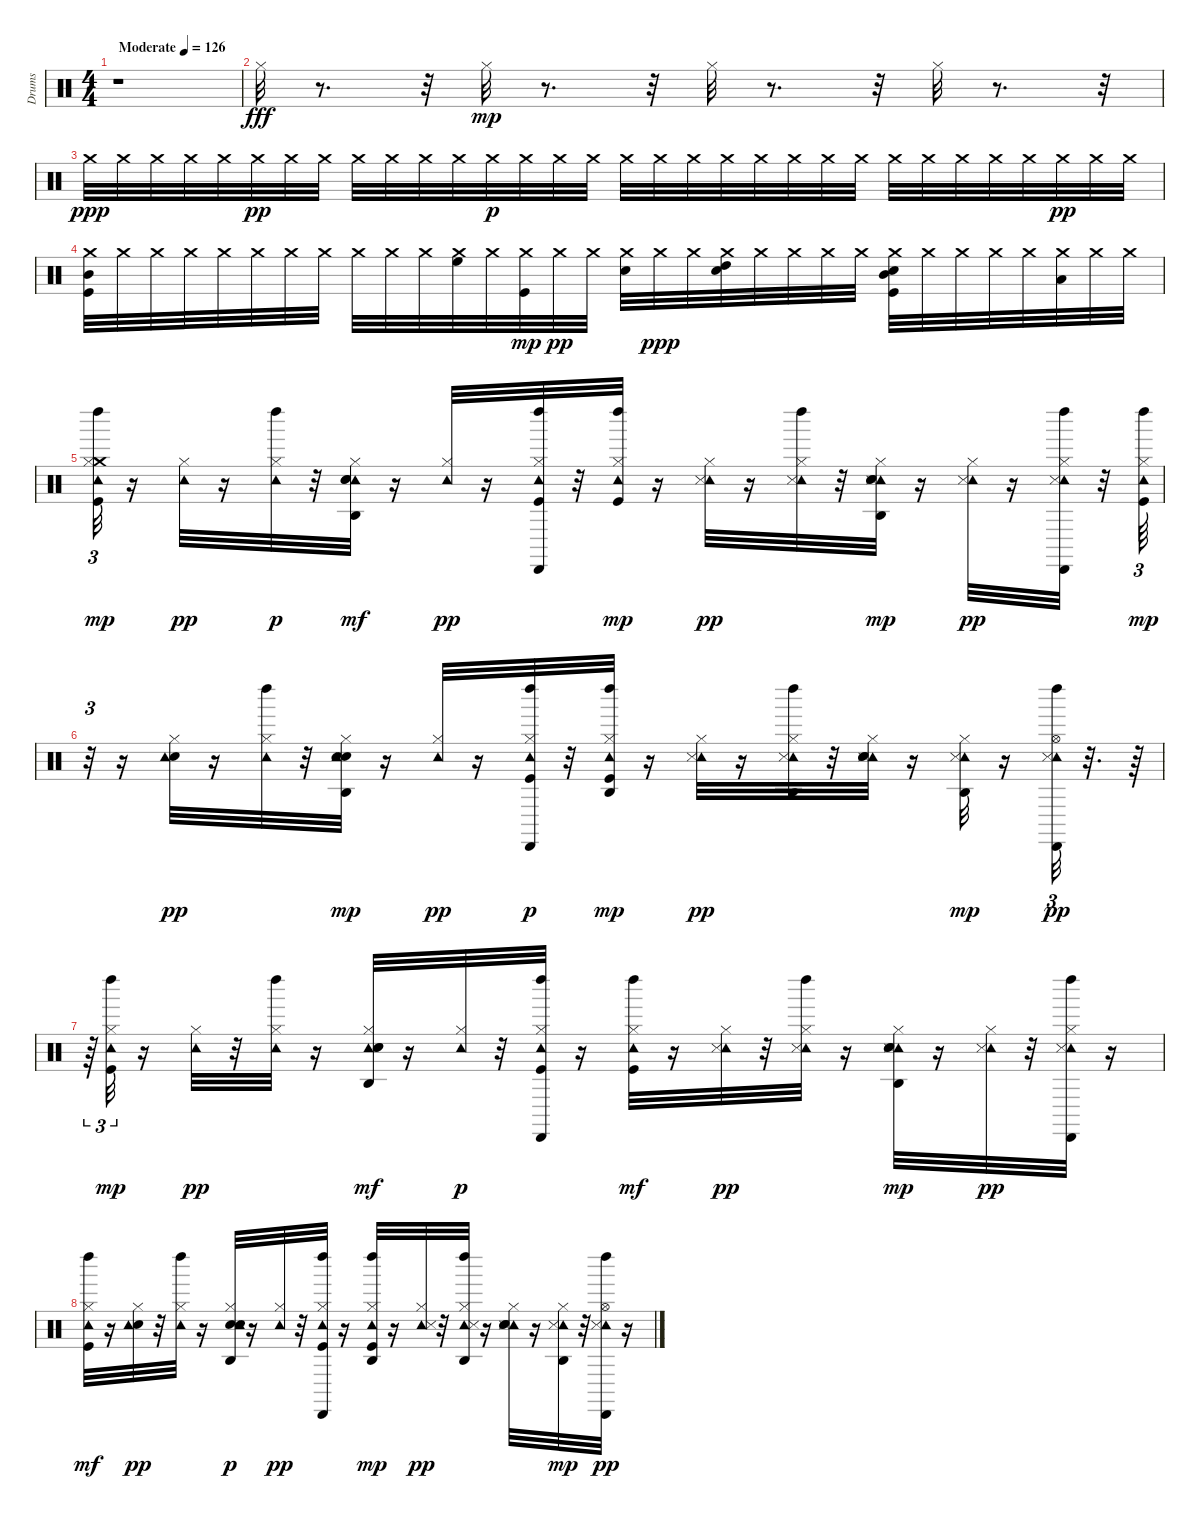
\track ("Drums" "Drums") {instrument percussion}
\staff {score}
\articulation defaults
\ts (4 4)
\tempo (126 "Moderate")
\clef neutral
\ks c
r.1{dy fff} |
"Hi-Hat (closed)".32 r.8{d} r.32 "Hi-Hat (closed)".32{dy mp} r.8{d} r.32 "Hi-Hat (closed)".32 r.8{d} r.32 "Hi-Hat (closed)".32 r.8{d} r.32 |
"Crash medium (hit)".32{dy ppp} "Crash medium (hit)".32 "Crash medium (hit)".32 "Crash medium (hit)".32 "Crash medium (hit)".32 "Crash medium (hit)".32{dy pp} "Crash medium (hit)".32 "Crash medium (hit)".32 "Crash medium (hit)".32 "Crash medium (hit)".32 "Crash medium (hit)".32 "Crash medium (hit)".32 "Crash medium (hit)".32{dy p} "Crash medium (hit)".32 "Crash medium (hit)".32 "Crash medium (hit)".32 "Crash medium (hit)".32 "Crash medium (hit)".32 "Crash medium (hit)".32 "Crash medium (hit)".32 "Crash medium (hit)".32 "Crash medium (hit)".32 "Crash medium (hit)".32 "Crash medium (hit)".32 "Crash medium (hit)".32 "Crash medium (hit)".32 "Crash medium (hit)".32 "Crash medium (hit)".32 "Crash medium (hit)".32 "Crash medium (hit)".32{dy pp} "Crash medium (hit)".32 "Crash medium (hit)".32 |
("Kick (hit)" "Crash medium (hit)" "Mid Tom (hit)").32 "Crash medium (hit)".32 "Crash medium (hit)".32 "Crash medium (hit)".32 "Crash medium (hit)".32 "Crash medium (hit)".32 "Crash medium (hit)".32 "Crash medium (hit)".32 "Crash medium (hit)".32 "Crash medium (hit)".32 "Crash medium (hit)".32 ("High Floor Tom (hit)" "Crash medium (hit)").32 "Crash medium (hit)".32 ("Crash medium (hit)" "Kick (hit)").32{dy mp} "Crash medium (hit)".32{dy pp} "Crash medium (hit)".32 ("Crash medium (hit)" "Snare (hit) 2").32 "Crash medium (hit)".32{dy ppp} "Crash medium (hit)".32 ("Snare (hit) 2" "High Tom (hit)" "Crash medium (hit)").32 "Crash medium (hit)".32 "Crash medium (hit)".32 "Crash medium (hit)".32 "Crash medium (hit)".32 ("Kick (hit)" "Crash medium (hit)" "Snare (hit) 2" "Mid Tom (hit)").32 "Crash medium (hit)".32 "Crash medium (hit)".32 "Crash medium (hit)".32 "Crash medium (hit)".32 ("Crash medium (hit)" "Low Tom (hit)").32 "Crash medium (hit)".32 "Crash medium (hit)".32 |
("Crash medium (hit)" "Kick (hit)" "Hi-Hat (closed)" "Left Maraca (hit)" "Tambourine (hit)").32{tu (3 2) dy mp} r.16 ("Hi-Hat (closed)" "Tambourine (hit)").32{dy pp} r.16 ("Hi-Hat (closed)" "Tambourine (hit)" "Left Maraca (hit)").32{dy p} r.32 ("Hi-Hat (closed)" "Tambourine (hit)" "Agogo high (hit)" "Snare (hit) 2" "Hand Clap (hit)").32{dy mf} r.16 ("Hi-Hat (closed)" "Tambourine (hit)").32{dy pp} r.16 ("Cabasa (hit)" "Kick (hit)" "Hi-Hat (closed)" "Tambourine (hit)" "Left Maraca (hit)").32 r.32 ("Hi-Hat (closed)" "Tambourine (hit)" "Kick (hit)" "Left Maraca (hit)").32{dy mp} r.16 ("Hi-Hat (closed)" "Tambourine (hit)" "Snare (side stick) 3").32{dy pp} r.16 ("Hi-Hat (closed)" "Left Maraca (hit)" "Tambourine (hit)" "Snare (side stick) 3").32 r.32 ("Hi-Hat (closed)" "Tambourine (hit)" "Hand Clap (hit)" "Snare (hit) 2" "Snare (side stick) 3" "Agogo high (hit)").32{dy mp} r.16 ("Hi-Hat (closed)" "Tambourine (hit)" "Snare (side stick) 3").32{dy pp} r.16 ("Cabasa (hit)" "Hi-Hat (closed)" "Left Maraca (hit)" "Tambourine (hit)" "Snare (side stick) 3").32 r.32 ("Tambourine (hit)" "Kick (hit)" "Hi-Hat (closed)" "Left Maraca (hit)").64{tu (3 2) dy mp} |
r.32{tu (3 2)} r.16 ("Electric Snare (hit)" "Hi-Hat (closed)" "Tambourine (hit)").32{dy pp} r.16 ("Left Maraca (hit)" "Hi-Hat (closed)" "Tambourine (hit)").32 r.32 ("Snare (hit) 2" "Hi-Hat (closed)" "Tambourine (hit)" "Agogo high (hit)" "Hand Clap (hit)").32{dy mp} r.16 ("Hi-Hat (closed)" "Tambourine (hit)").32{dy pp} r.16 ("Kick (hit)" "Hi-Hat (closed)" "Left Maraca (hit)" "Tambourine (hit)" "Cabasa (hit)").32{dy p} r.32 ("Tambourine (hit)" "Kick (hit)" "Hi-Hat (closed)" "Left Maraca (hit)" "Agogo high (hit)").32{dy mp} r.16 ("Hi-Hat (closed)" "Tambourine (hit)" "Snare (side stick) 3").32{dy pp} r.16 ("Hi-Hat (closed)" "Left Maraca (hit)" "Tambourine (hit)" "Agogo high (hit)" "Snare (side stick) 3").32 r.32 ("Hi-Hat (closed)" "Tambourine (hit)" "Hand Clap (hit)" "Snare (hit) 2" "Snare (side stick) 3").32 r.16 ("Hi-Hat (closed)" "Tambourine (hit)" "Snare (side stick) 3" "Agogo high (hit)").32{dy mp} r.16 ("Hi-Hat (open)" "Left Maraca (hit)" "Tambourine (hit)" "Cabasa (hit)" "Snare (side stick) 3").32{tu (3 2) dy pp} r.32{d} r.64 |
r.64{tu (3 2)} ("Kick (hit)" "Hi-Hat (closed)" "Left Maraca (hit)" "Tambourine (hit)").32{tu (3 2) dy mp} r.16 ("Hi-Hat (closed)" "Tambourine (hit)").32{dy pp} r.32 ("Hi-Hat (closed)" "Tambourine (hit)" "Left Maraca (hit)").32 r.16 ("Hi-Hat (closed)" "Tambourine (hit)" "Agogo high (hit)" "Snare (hit) 2" "Hand Clap (hit)").32{dy mf} r.16 ("Hi-Hat (closed)" "Tambourine (hit)").32{dy p} r.32 ("Cabasa (hit)" "Kick (hit)" "Hi-Hat (closed)" "Tambourine (hit)" "Left Maraca (hit)").32 r.16 ("Hi-Hat (closed)" "Tambourine (hit)" "Kick (hit)" "Left Maraca (hit)").32{dy mf} r.16 ("Hi-Hat (closed)" "Tambourine (hit)" "Snare (side stick) 3").32{dy pp} r.32 ("Hi-Hat (closed)" "Left Maraca (hit)" "Tambourine (hit)" "Snare (side stick) 3").32 r.16 ("Hi-Hat (closed)" "Tambourine (hit)" "Hand Clap (hit)" "Snare (hit) 2" "Snare (side stick) 3" "Agogo high (hit)").32{dy mp} r.16 ("Hi-Hat (closed)" "Tambourine (hit)" "Snare (side stick) 3").32{dy pp} r.32 ("Cabasa (hit)" "Hi-Hat (closed)" "Left Maraca (hit)" "Tambourine (hit)" "Snare (side stick) 3").32 r.16 |
("Tambourine (hit)" "Kick (hit)" "Hi-Hat (closed)" "Left Maraca (hit)").32{dy mf} r.16 ("Electric Snare (hit)" "Hi-Hat (closed)" "Tambourine (hit)").32{dy pp} r.32 ("Left Maraca (hit)" "Hi-Hat (closed)" "Tambourine (hit)").32 r.16 ("Snare (hit) 2" "Hi-Hat (closed)" "Tambourine (hit)" "Agogo high (hit)" "Hand Clap (hit)").32{dy p} r.16 ("Hi-Hat (closed)" "Tambourine (hit)").32{dy pp} r.32 ("Kick (hit)" "Hi-Hat (closed)" "Left Maraca (hit)" "Tambourine (hit)" "Cabasa (hit)").32 r.16 ("Tambourine (hit)" "Kick (hit)" "Hi-Hat (closed)" "Left Maraca (hit)" "Agogo high (hit)").32{dy mp} r.16 ("Hi-Hat (closed)" "Tambourine (hit)" "Snare (side stick) 3").32{dy pp} r.32 ("Hi-Hat (closed)" "Left Maraca (hit)" "Tambourine (hit)" "Agogo high (hit)" "Snare (side stick) 3").32 r.16 ("Hi-Hat (closed)" "Tambourine (hit)" "Hand Clap (hit)" "Snare (hit) 2" "Snare (side stick) 3").32 r.16 ("Hi-Hat (closed)" "Tambourine (hit)" "Snare (side stick) 3" "Agogo high (hit)").32{dy mp} r.32 ("Hi-Hat (open)" "Left Maraca (hit)" "Tambourine (hit)" "Cabasa (hit)" "Snare (side stick) 3").32{dy pp} r.16
